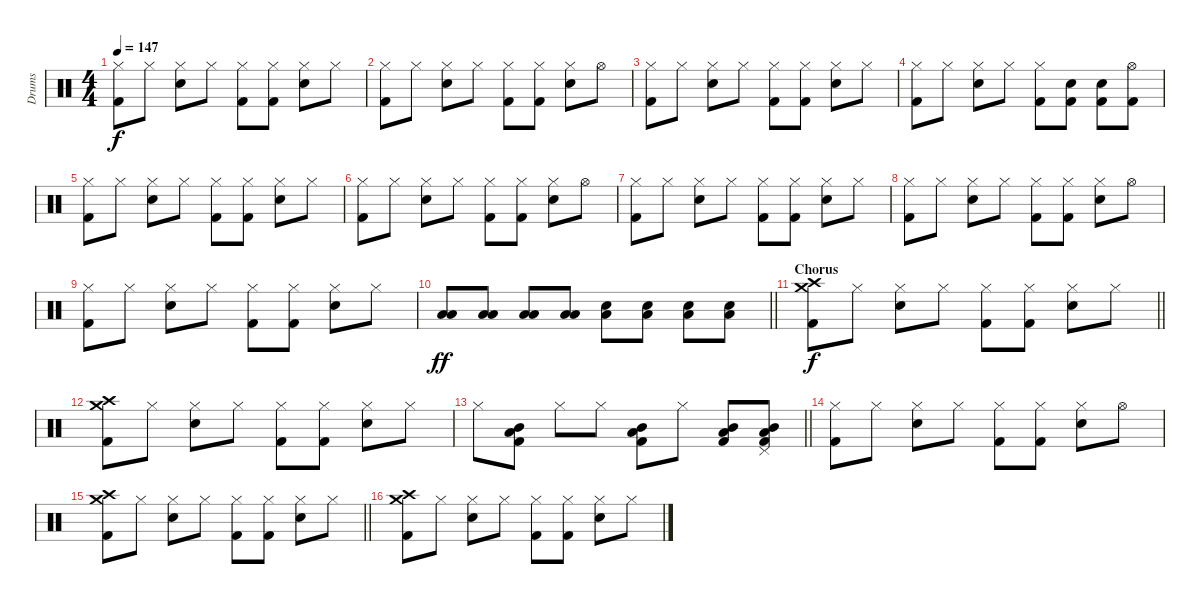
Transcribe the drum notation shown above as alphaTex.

\track ("Drums" "Drums") {instrument percussion}
\staff {score}
\articulation defaults
\ts (4 4)
\tempo 147
\clef neutral
\ks c
("Hi-Hat (closed)" "Kick (hit) 2").8{dy f} "Hi-Hat (closed)".8 ("Hi-Hat (closed)" "Electric Snare (hit)").8 "Hi-Hat (closed)".8 ("Hi-Hat (closed)" "Kick (hit) 2").8 ("Hi-Hat (closed)" "Kick (hit) 2").8 ("Hi-Hat (closed)" "Electric Snare (hit)").8 "Hi-Hat (closed)".8 |
("Hi-Hat (closed)" "Kick (hit) 2").8 "Hi-Hat (closed)".8 ("Hi-Hat (closed)" "Electric Snare (hit)").8 "Hi-Hat (closed)".8 ("Hi-Hat (closed)" "Kick (hit) 2").8 ("Hi-Hat (closed)" "Kick (hit) 2").8 ("Hi-Hat (closed)" "Electric Snare (hit)").8 "Hi-Hat (open)".8 |
("Hi-Hat (closed)" "Kick (hit) 2").8 "Hi-Hat (closed)".8 ("Hi-Hat (closed)" "Electric Snare (hit)").8 "Hi-Hat (closed)".8 ("Hi-Hat (closed)" "Kick (hit) 2").8 ("Hi-Hat (closed)" "Kick (hit) 2").8 ("Hi-Hat (closed)" "Electric Snare (hit)").8 "Hi-Hat (closed)".8 |
("Hi-Hat (closed)" "Kick (hit) 2").8 "Hi-Hat (closed)".8 ("Hi-Hat (closed)" "Electric Snare (hit)").8 "Hi-Hat (closed)".8 ("Hi-Hat (closed)" "Kick (hit) 2").8 ("Electric Snare (hit)" "Kick (hit) 2").8 ("Electric Snare (hit)" "Kick (hit) 2").8 ("Hi-Hat (open)" "Kick (hit) 2").8 |
("Hi-Hat (closed)" "Kick (hit) 2").8 "Hi-Hat (closed)".8 ("Hi-Hat (closed)" "Electric Snare (hit)").8 "Hi-Hat (closed)".8 ("Hi-Hat (closed)" "Kick (hit) 2").8 ("Hi-Hat (closed)" "Kick (hit) 2").8 ("Hi-Hat (closed)" "Electric Snare (hit)").8 "Hi-Hat (closed)".8 |
("Hi-Hat (closed)" "Kick (hit) 2").8 "Hi-Hat (closed)".8 ("Hi-Hat (closed)" "Electric Snare (hit)").8 "Hi-Hat (closed)".8 ("Hi-Hat (closed)" "Kick (hit) 2").8 ("Hi-Hat (closed)" "Kick (hit) 2").8 ("Hi-Hat (closed)" "Electric Snare (hit)").8 "Hi-Hat (open)".8 |
("Hi-Hat (closed)" "Kick (hit) 2").8 "Hi-Hat (closed)".8 ("Hi-Hat (closed)" "Electric Snare (hit)").8 "Hi-Hat (closed)".8 ("Hi-Hat (closed)" "Kick (hit) 2").8 ("Hi-Hat (closed)" "Kick (hit) 2").8 ("Hi-Hat (closed)" "Electric Snare (hit)").8 "Hi-Hat (closed)".8 |
("Hi-Hat (closed)" "Kick (hit) 2").8 "Hi-Hat (closed)".8 ("Hi-Hat (closed)" "Electric Snare (hit)").8 "Hi-Hat (closed)".8 ("Hi-Hat (closed)" "Kick (hit) 2").8 ("Hi-Hat (closed)" "Kick (hit) 2").8 ("Hi-Hat (closed)" "Electric Snare (hit)").8 "Hi-Hat (open)".8 |
("Hi-Hat (closed)" "Kick (hit) 2").8 "Hi-Hat (closed)".8 ("Hi-Hat (closed)" "Electric Snare (hit)").8 "Hi-Hat (closed)".8 ("Hi-Hat (closed)" "Kick (hit) 2").8 ("Hi-Hat (closed)" "Kick (hit) 2").8 ("Hi-Hat (closed)" "Electric Snare (hit)").8 "Hi-Hat (closed)".8 |
\barLineRight lightlight
("Low Tom (hit)" "Low Floor Tom (hit)").8{dy ff} ("Low Tom (hit)" "Low Floor Tom (hit)").8 ("Low Tom (hit)" "Low Floor Tom (hit)").8 ("Low Tom (hit)" "Low Floor Tom (hit)").8 ("Electric Snare (hit)" "Low Floor Tom (hit)").8 ("Electric Snare (hit)" "Low Floor Tom (hit)").8 ("Electric Snare (hit)" "Low Floor Tom (hit)").8 ("Electric Snare (hit)" "Low Floor Tom (hit)").8 |
\section ("" "Chorus")
\barLineRight lightlight
("Crash medium (hit)" "Crash high (hit)" "Kick (hit) 2").8{dy f} "Hi-Hat (closed)".8 ("Hi-Hat (closed)" "Electric Snare (hit)").8 "Hi-Hat (closed)".8 ("Hi-Hat (closed)" "Kick (hit) 2").8 ("Hi-Hat (closed)" "Kick (hit) 2").8 ("Hi-Hat (closed)" "Electric Snare (hit)").8 "Hi-Hat (closed)".8 |
("Crash medium (hit)" "Crash high (hit)" "Kick (hit) 2").8 "Hi-Hat (closed)".8 ("Hi-Hat (closed)" "Electric Snare (hit)").8 "Hi-Hat (closed)".8 ("Hi-Hat (closed)" "Kick (hit) 2").8 ("Hi-Hat (closed)" "Kick (hit) 2").8 ("Hi-Hat (closed)" "Electric Snare (hit)").8 "Hi-Hat (closed)".8 |
\barLineRight lightlight "Hi-Hat (closed)".8{volume 16}
("Low Tom (hit)" "Mid Tom (hit)" "Kick (hit) 2").8 "Hi-Hat (closed)".8 "Hi-Hat (closed)".8 ("Mid Tom (hit)" "Low Tom (hit)" "Kick (hit) 2").8 "Hi-Hat (closed)".8 ("Low Tom (hit)" "Mid Tom (hit)" "Kick (hit) 2").8 ("Pedal Hi-Hat (hit)" "Low Tom (hit)" "Mid Tom (hit)" "Kick (hit) 2").8 |
("Hi-Hat (closed)" "Kick (hit) 2").8 "Hi-Hat (closed)".8 ("Hi-Hat (closed)" "Electric Snare (hit)").8 "Hi-Hat (closed)".8 ("Hi-Hat (closed)" "Kick (hit) 2").8 ("Hi-Hat (closed)" "Kick (hit) 2").8 ("Hi-Hat (closed)" "Electric Snare (hit)").8 "Hi-Hat (open)".8 |
\barLineRight lightlight
("Crash medium (hit)" "Crash high (hit)" "Kick (hit) 2").8 "Hi-Hat (closed)".8 ("Hi-Hat (closed)" "Electric Snare (hit)").8 "Hi-Hat (closed)".8 ("Hi-Hat (closed)" "Kick (hit) 2").8 ("Hi-Hat (closed)" "Kick (hit) 2").8 ("Hi-Hat (closed)" "Electric Snare (hit)").8 "Hi-Hat (closed)".8 |
("Crash medium (hit)" "Crash high (hit)" "Kick (hit) 2").8 "Hi-Hat (closed)".8 ("Hi-Hat (closed)" "Electric Snare (hit)").8 "Hi-Hat (closed)".8 ("Hi-Hat (closed)" "Kick (hit) 2").8 ("Hi-Hat (closed)" "Kick (hit) 2").8 ("Hi-Hat (closed)" "Electric Snare (hit)").8 "Hi-Hat (closed)".8
